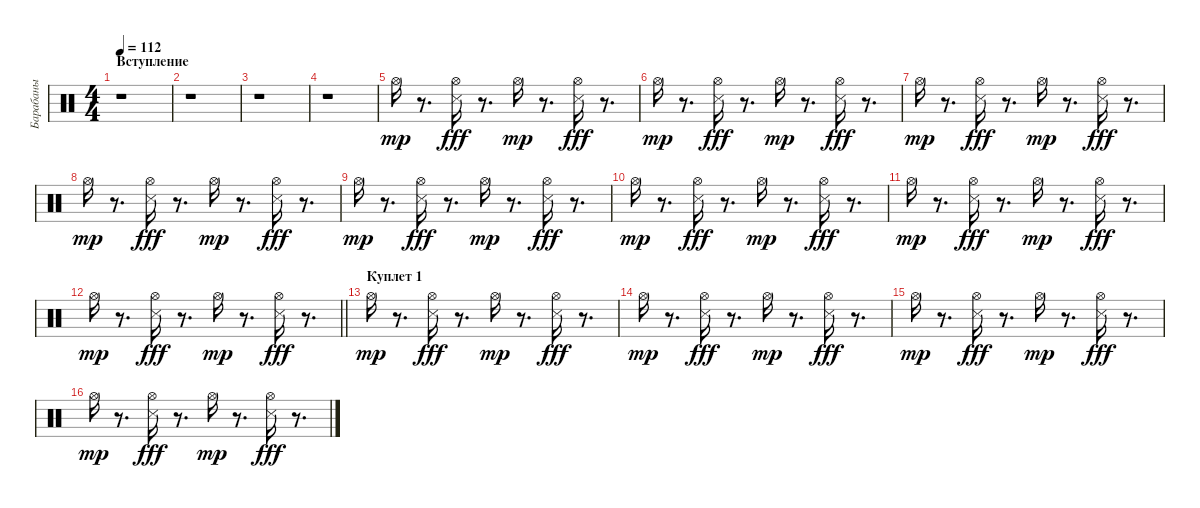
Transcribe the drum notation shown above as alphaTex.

\track ("Барабаны" "Барабаны") {instrument percussion}
\staff {score}
\articulation defaults
\ts (4 4)
\section ("" "Вступление")
\tempo 112
\clef neutral
\ks c
r.1{dy mp} |
r.1 |
r.1 |
r.1 |
"Hi-Hat (open)".16 r.8{d} ("Hi-Hat (open)" "Snare (side stick) 3").16{dy fff} r.8{d} "Hi-Hat (open)".16{dy mp} r.8{d} ("Hi-Hat (open)" "Snare (side stick) 3").16{dy fff} r.8{d} |
"Hi-Hat (open)".16{dy mp} r.8{d} ("Hi-Hat (open)" "Snare (side stick) 3").16{dy fff} r.8{d} "Hi-Hat (open)".16{dy mp} r.8{d} ("Hi-Hat (open)" "Snare (side stick) 3").16{dy fff} r.8{d} |
"Hi-Hat (open)".16{dy mp} r.8{d} ("Hi-Hat (open)" "Snare (side stick) 3").16{dy fff} r.8{d} "Hi-Hat (open)".16{dy mp} r.8{d} ("Hi-Hat (open)" "Snare (side stick) 3").16{dy fff} r.8{d} |
"Hi-Hat (open)".16{dy mp} r.8{d} ("Hi-Hat (open)" "Snare (side stick) 3").16{dy fff} r.8{d} "Hi-Hat (open)".16{dy mp} r.8{d} ("Hi-Hat (open)" "Snare (side stick) 3").16{dy fff} r.8{d} |
"Hi-Hat (open)".16{dy mp} r.8{d} ("Hi-Hat (open)" "Snare (side stick) 3").16{dy fff} r.8{d} "Hi-Hat (open)".16{dy mp} r.8{d} ("Hi-Hat (open)" "Snare (side stick) 3").16{dy fff} r.8{d} |
"Hi-Hat (open)".16{dy mp} r.8{d} ("Hi-Hat (open)" "Snare (side stick) 3").16{dy fff} r.8{d} "Hi-Hat (open)".16{dy mp} r.8{d} ("Hi-Hat (open)" "Snare (side stick) 3").16{dy fff} r.8{d} |
"Hi-Hat (open)".16{dy mp} r.8{d} ("Hi-Hat (open)" "Snare (side stick) 3").16{dy fff} r.8{d} "Hi-Hat (open)".16{dy mp} r.8{d} ("Hi-Hat (open)" "Snare (side stick) 3").16{dy fff} r.8{d} |
\barLineRight lightlight "Hi-Hat (open)".16{dy mp}
r.8{d} ("Hi-Hat (open)" "Snare (side stick) 3").16{dy fff} r.8{d} "Hi-Hat (open)".16{dy mp} r.8{d} ("Hi-Hat (open)" "Snare (side stick) 3").16{dy fff} r.8{d} |
\section ("" "Куплет 1")
"Hi-Hat (open)".16{dy mp} r.8{d} ("Hi-Hat (open)" "Snare (side stick) 3").16{dy fff} r.8{d} "Hi-Hat (open)".16{dy mp} r.8{d} ("Hi-Hat (open)" "Snare (side stick) 3").16{dy fff} r.8{d} |
"Hi-Hat (open)".16{dy mp} r.8{d} ("Hi-Hat (open)" "Snare (side stick) 3").16{dy fff} r.8{d} "Hi-Hat (open)".16{dy mp} r.8{d} ("Hi-Hat (open)" "Snare (side stick) 3").16{dy fff} r.8{d} |
"Hi-Hat (open)".16{dy mp} r.8{d} ("Hi-Hat (open)" "Snare (side stick) 3").16{dy fff} r.8{d} "Hi-Hat (open)".16{dy mp} r.8{d} ("Hi-Hat (open)" "Snare (side stick) 3").16{dy fff} r.8{d} |
"Hi-Hat (open)".16{dy mp} r.8{d} ("Hi-Hat (open)" "Snare (side stick) 3").16{dy fff} r.8{d} "Hi-Hat (open)".16{dy mp} r.8{d} ("Hi-Hat (open)" "Snare (side stick) 3").16{dy fff} r.8{d}
